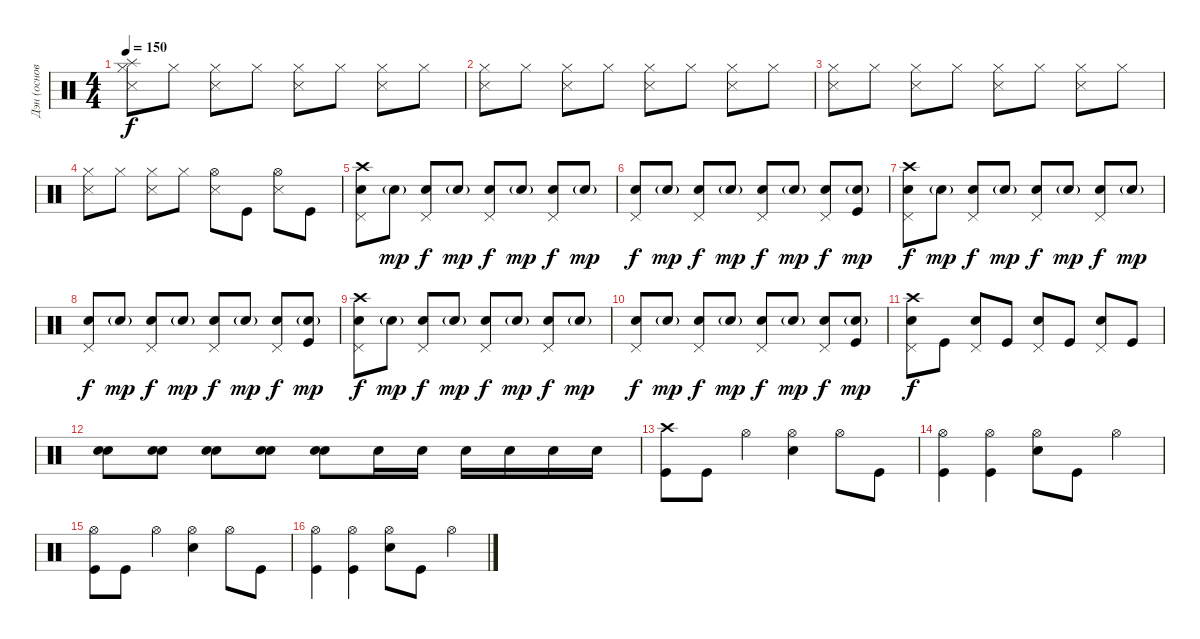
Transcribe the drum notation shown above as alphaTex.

\track ("Дэн (основа)" "Дэн (основ") {instrument percussion}
\staff {score}
\articulation defaults
\ts (4 4)
\tempo 150
\clef neutral
\ks c
("Hi-Hat (closed)" "Snare (side stick) 3" "Splash (hit)").8{dy f} "Hi-Hat (closed)".8 ("Hi-Hat (closed)" "Snare (side stick) 3").8 "Hi-Hat (closed)".8 ("Hi-Hat (closed)" "Snare (side stick) 3").8 "Hi-Hat (closed)".8 ("Hi-Hat (closed)" "Snare (side stick) 3").8 "Hi-Hat (closed)".8 |
("Hi-Hat (closed)" "Snare (side stick) 3").8 "Hi-Hat (closed)".8 ("Hi-Hat (closed)" "Snare (side stick) 3").8 "Hi-Hat (closed)".8 ("Hi-Hat (closed)" "Snare (side stick) 3").8 "Hi-Hat (closed)".8 ("Hi-Hat (closed)" "Snare (side stick) 3").8 "Hi-Hat (closed)".8 |
("Hi-Hat (closed)" "Snare (side stick) 3").8 "Hi-Hat (closed)".8 ("Hi-Hat (closed)" "Snare (side stick) 3").8 "Hi-Hat (closed)".8 ("Hi-Hat (closed)" "Snare (side stick) 3").8 "Hi-Hat (closed)".8 ("Hi-Hat (closed)" "Snare (side stick) 3").8 "Hi-Hat (closed)".8 |
("Hi-Hat (closed)" "Snare (side stick) 3").8 "Hi-Hat (closed)".8 ("Hi-Hat (closed)" "Snare (side stick) 3").8 "Hi-Hat (closed)".8 ("Hi-Hat (open)" "Snare (side stick) 3").8 "Kick (hit)".8 ("Hi-Hat (open)" "Snare (side stick) 3").8 "Kick (hit)".8 |
("Crash high (hit)" "Pedal Hi-Hat (hit)" "Electric Snare (hit)").8 "Electric Snare (hit)"{g}.8{dy mp} ("Pedal Hi-Hat (hit)" "Electric Snare (hit)").8{dy f} "Electric Snare (hit)"{g}.8{dy mp} ("Pedal Hi-Hat (hit)" "Electric Snare (hit)").8{dy f} "Electric Snare (hit)"{g}.8{dy mp} ("Pedal Hi-Hat (hit)" "Electric Snare (hit)").8{dy f} "Electric Snare (hit)"{g}.8{dy mp} |
("Pedal Hi-Hat (hit)" "Electric Snare (hit)").8{dy f} "Electric Snare (hit)"{g}.8{dy mp} ("Pedal Hi-Hat (hit)" "Electric Snare (hit)").8{dy f} "Electric Snare (hit)"{g}.8{dy mp} ("Pedal Hi-Hat (hit)" "Electric Snare (hit)").8{dy f} "Electric Snare (hit)"{g}.8{dy mp} ("Pedal Hi-Hat (hit)" "Electric Snare (hit)").8{dy f} ("Electric Snare (hit)"{g} "Kick (hit)").8{dy mp} |
("Crash high (hit)" "Pedal Hi-Hat (hit)" "Electric Snare (hit)").8{dy f} "Electric Snare (hit)"{g}.8{dy mp} ("Pedal Hi-Hat (hit)" "Electric Snare (hit)").8{dy f} "Electric Snare (hit)"{g}.8{dy mp} ("Pedal Hi-Hat (hit)" "Electric Snare (hit)").8{dy f} "Electric Snare (hit)"{g}.8{dy mp} ("Pedal Hi-Hat (hit)" "Electric Snare (hit)").8{dy f} "Electric Snare (hit)"{g}.8{dy mp} |
("Pedal Hi-Hat (hit)" "Electric Snare (hit)").8{dy f} "Electric Snare (hit)"{g}.8{dy mp} ("Pedal Hi-Hat (hit)" "Electric Snare (hit)").8{dy f} "Electric Snare (hit)"{g}.8{dy mp} ("Pedal Hi-Hat (hit)" "Electric Snare (hit)").8{dy f} "Electric Snare (hit)"{g}.8{dy mp} ("Pedal Hi-Hat (hit)" "Electric Snare (hit)").8{dy f} ("Electric Snare (hit)"{g} "Kick (hit)").8{dy mp} |
("Crash high (hit)" "Pedal Hi-Hat (hit)" "Electric Snare (hit)").8{dy f} "Electric Snare (hit)"{g}.8{dy mp} ("Pedal Hi-Hat (hit)" "Electric Snare (hit)").8{dy f} "Electric Snare (hit)"{g}.8{dy mp} ("Pedal Hi-Hat (hit)" "Electric Snare (hit)").8{dy f} "Electric Snare (hit)"{g}.8{dy mp} ("Pedal Hi-Hat (hit)" "Electric Snare (hit)").8{dy f} "Electric Snare (hit)"{g}.8{dy mp} |
("Pedal Hi-Hat (hit)" "Electric Snare (hit)").8{dy f} "Electric Snare (hit)"{g}.8{dy mp} ("Pedal Hi-Hat (hit)" "Electric Snare (hit)").8{dy f} "Electric Snare (hit)"{g}.8{dy mp} ("Pedal Hi-Hat (hit)" "Electric Snare (hit)").8{dy f} "Electric Snare (hit)"{g}.8{dy mp} ("Pedal Hi-Hat (hit)" "Electric Snare (hit)").8{dy f} ("Electric Snare (hit)"{g} "Kick (hit)").8{dy mp} |
("Crash high (hit)" "Pedal Hi-Hat (hit)" "Electric Snare (hit)").8{dy f} "Kick (hit)".8 ("Pedal Hi-Hat (hit)" "Electric Snare (hit)").8 "Kick (hit)".8 ("Pedal Hi-Hat (hit)" "Electric Snare (hit)").8 "Kick (hit)".8 ("Pedal Hi-Hat (hit)" "Electric Snare (hit)").8 "Kick (hit)".8 |
("Electric Snare (hit)" "Electric Snare (hit)").8{bd 240} ("Electric Snare (hit)" "Electric Snare (hit)").8{bd 240} ("Electric Snare (hit)" "Electric Snare (hit)").8{bd 240} ("Electric Snare (hit)" "Electric Snare (hit)").8{bd 240} ("Electric Snare (hit)" "Electric Snare (hit)").8{bd 240} "Electric Snare (hit)".16 "Electric Snare (hit)".16 "Electric Snare (hit)".16 "Electric Snare (hit)".16 "Electric Snare (hit)".16 "Electric Snare (hit)".16 |
("Crash high (hit)" "Kick (hit)").8 "Kick (hit)".8 "Hi-Hat (open)".4 ("Hi-Hat (open)" "Electric Snare (hit)").4 "Hi-Hat (open)".8 "Kick (hit)".8 |
("Hi-Hat (open)" "Kick (hit)").4 ("Hi-Hat (open)" "Kick (hit)").4 ("Hi-Hat (open)" "Electric Snare (hit)").8 "Kick (hit)".8 "Hi-Hat (open)".4 |
("Hi-Hat (open)" "Kick (hit)").8 "Kick (hit)".8 "Hi-Hat (open)".4 ("Hi-Hat (open)" "Electric Snare (hit)").4 "Hi-Hat (open)".8 "Kick (hit)".8 |
("Hi-Hat (open)" "Kick (hit)").4 ("Hi-Hat (open)" "Kick (hit)").4 ("Hi-Hat (open)" "Electric Snare (hit)").8 "Kick (hit)".8 "Hi-Hat (open)".4
